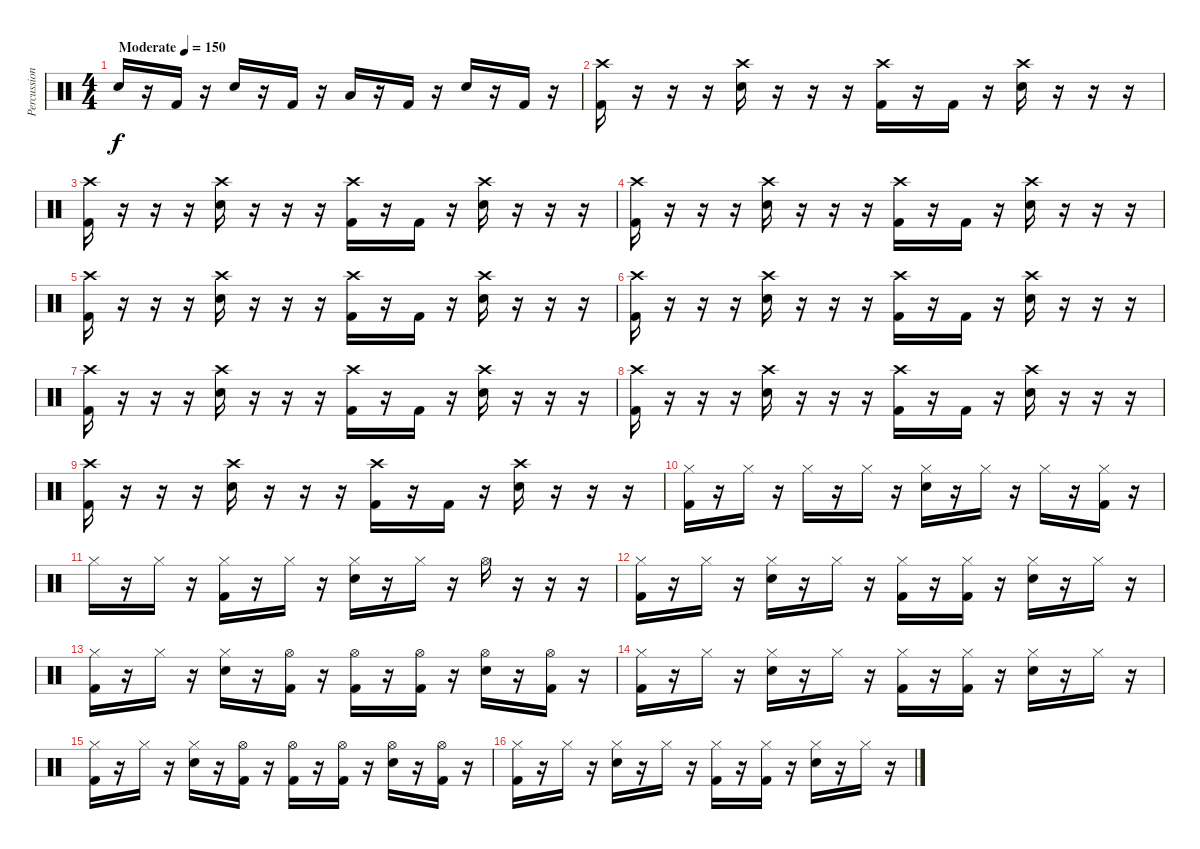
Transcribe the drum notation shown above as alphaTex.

\track ("Percussion" "Percussion") {instrument percussion}
\staff {score}
\articulation defaults
\ts (4 4)
\tempo (150 "Moderate")
\clef neutral
\ks c "Electric Snare (hit)".16{dy f}
r.16 "Kick (hit) 2".16 r.16 "Electric Snare (hit)".16 r.16 "Kick (hit) 2".16 r.16 "Low Tom (hit)".16 r.16 "Kick (hit) 2".16 r.16 "Electric Snare (hit)".16 r.16 "Kick (hit) 2".16 r.16 |
("Crash high (hit)" "Kick (hit) 2").16 r.16 r.16 r.16 ("Crash high (hit)" "Electric Snare (hit)").16 r.16 r.16 r.16 ("Crash high (hit)" "Kick (hit) 2").16 r.16 "Kick (hit) 2".16 r.16 ("Crash high (hit)" "Electric Snare (hit)").16 r.16 r.16 r.16 |
("Crash high (hit)" "Kick (hit) 2").16 r.16 r.16 r.16 ("Crash high (hit)" "Electric Snare (hit)").16 r.16 r.16 r.16 ("Crash high (hit)" "Kick (hit) 2").16 r.16 "Kick (hit) 2".16 r.16 ("Crash high (hit)" "Electric Snare (hit)").16 r.16 r.16 r.16 |
("Crash high (hit)" "Kick (hit) 2").16 r.16 r.16 r.16 ("Crash high (hit)" "Electric Snare (hit)").16 r.16 r.16 r.16 ("Crash high (hit)" "Kick (hit) 2").16 r.16 "Kick (hit) 2".16 r.16 ("Crash high (hit)" "Electric Snare (hit)").16 r.16 r.16 r.16 |
("Crash high (hit)" "Kick (hit) 2").16 r.16 r.16 r.16 ("Crash high (hit)" "Electric Snare (hit)").16 r.16 r.16 r.16 ("Crash high (hit)" "Kick (hit) 2").16 r.16 "Kick (hit) 2".16 r.16 ("Crash high (hit)" "Electric Snare (hit)").16 r.16 r.16 r.16 |
("Crash high (hit)" "Kick (hit) 2").16 r.16 r.16 r.16 ("Crash high (hit)" "Electric Snare (hit)").16 r.16 r.16 r.16 ("Crash high (hit)" "Kick (hit) 2").16 r.16 "Kick (hit) 2".16 r.16 ("Crash high (hit)" "Electric Snare (hit)").16 r.16 r.16 r.16 |
("Crash high (hit)" "Kick (hit) 2").16 r.16 r.16 r.16 ("Crash high (hit)" "Electric Snare (hit)").16 r.16 r.16 r.16 ("Crash high (hit)" "Kick (hit) 2").16 r.16 "Kick (hit) 2".16 r.16 ("Crash high (hit)" "Electric Snare (hit)").16 r.16 r.16 r.16 |
("Crash high (hit)" "Kick (hit) 2").16 r.16 r.16 r.16 ("Crash high (hit)" "Electric Snare (hit)").16 r.16 r.16 r.16 ("Crash high (hit)" "Kick (hit) 2").16 r.16 "Kick (hit) 2".16 r.16 ("Crash high (hit)" "Electric Snare (hit)").16 r.16 r.16 r.16 |
("Crash high (hit)" "Kick (hit) 2").16 r.16 r.16 r.16 ("Crash high (hit)" "Electric Snare (hit)").16 r.16 r.16 r.16 ("Crash high (hit)" "Kick (hit) 2").16 r.16 "Kick (hit) 2".16 r.16 ("Crash high (hit)" "Electric Snare (hit)").16 r.16 r.16 r.16 |
("Hi-Hat (closed)" "Kick (hit) 2").16 r.16 "Hi-Hat (closed)".16 r.16 "Hi-Hat (closed)".16 r.16 "Hi-Hat (closed)".16 r.16 ("Hi-Hat (closed)" "Electric Snare (hit)").16 r.16 "Hi-Hat (closed)".16 r.16 "Hi-Hat (closed)".16 r.16 ("Hi-Hat (closed)" "Kick (hit) 2").16 r.16 |
"Hi-Hat (closed)".16 r.16 "Hi-Hat (closed)".16 r.16 ("Hi-Hat (closed)" "Kick (hit) 2").16 r.16 "Hi-Hat (closed)".16 r.16 ("Hi-Hat (closed)" "Electric Snare (hit)").16 r.16 "Hi-Hat (closed)".16 r.16 "Hi-Hat (open)".16 r.16 r.16 r.16 |
("Hi-Hat (closed)" "Kick (hit) 2").16 r.16 "Hi-Hat (closed)".16 r.16 ("Hi-Hat (closed)" "Electric Snare (hit)").16 r.16 "Hi-Hat (closed)".16 r.16 ("Hi-Hat (closed)" "Kick (hit) 2").16 r.16 ("Hi-Hat (closed)" "Kick (hit) 2").16 r.16 ("Hi-Hat (closed)" "Electric Snare (hit)").16 r.16 "Hi-Hat (closed)".16 r.16 |
("Hi-Hat (closed)" "Kick (hit) 2").16 r.16 "Hi-Hat (closed)".16 r.16 ("Hi-Hat (closed)" "Electric Snare (hit)").16 r.16 ("Hi-Hat (open)" "Kick (hit) 2").16 r.16 ("Hi-Hat (open)" "Kick (hit) 2").16 r.16 ("Hi-Hat (open)" "Kick (hit) 2").16 r.16 ("Hi-Hat (open)" "Electric Snare (hit)").16 r.16 ("Hi-Hat (open)" "Kick (hit) 2").16 r.16 |
("Hi-Hat (closed)" "Kick (hit) 2").16 r.16 "Hi-Hat (closed)".16 r.16 ("Hi-Hat (closed)" "Electric Snare (hit)").16 r.16 "Hi-Hat (closed)".16 r.16 ("Hi-Hat (closed)" "Kick (hit) 2").16 r.16 ("Hi-Hat (closed)" "Kick (hit) 2").16 r.16 ("Hi-Hat (closed)" "Electric Snare (hit)").16 r.16 "Hi-Hat (closed)".16 r.16 |
("Hi-Hat (closed)" "Kick (hit) 2").16 r.16 "Hi-Hat (closed)".16 r.16 ("Hi-Hat (closed)" "Electric Snare (hit)").16 r.16 ("Hi-Hat (open)" "Kick (hit) 2").16 r.16 ("Hi-Hat (open)" "Kick (hit) 2").16 r.16 ("Hi-Hat (open)" "Kick (hit) 2").16 r.16 ("Hi-Hat (open)" "Electric Snare (hit)").16 r.16 ("Hi-Hat (open)" "Kick (hit) 2").16 r.16 |
("Hi-Hat (closed)" "Kick (hit) 2").16 r.16 "Hi-Hat (closed)".16 r.16 ("Hi-Hat (closed)" "Electric Snare (hit)").16 r.16 "Hi-Hat (closed)".16 r.16 ("Hi-Hat (closed)" "Kick (hit) 2").16 r.16 ("Hi-Hat (closed)" "Kick (hit) 2").16 r.16 ("Hi-Hat (closed)" "Electric Snare (hit)").16 r.16 "Hi-Hat (closed)".16 r.16
